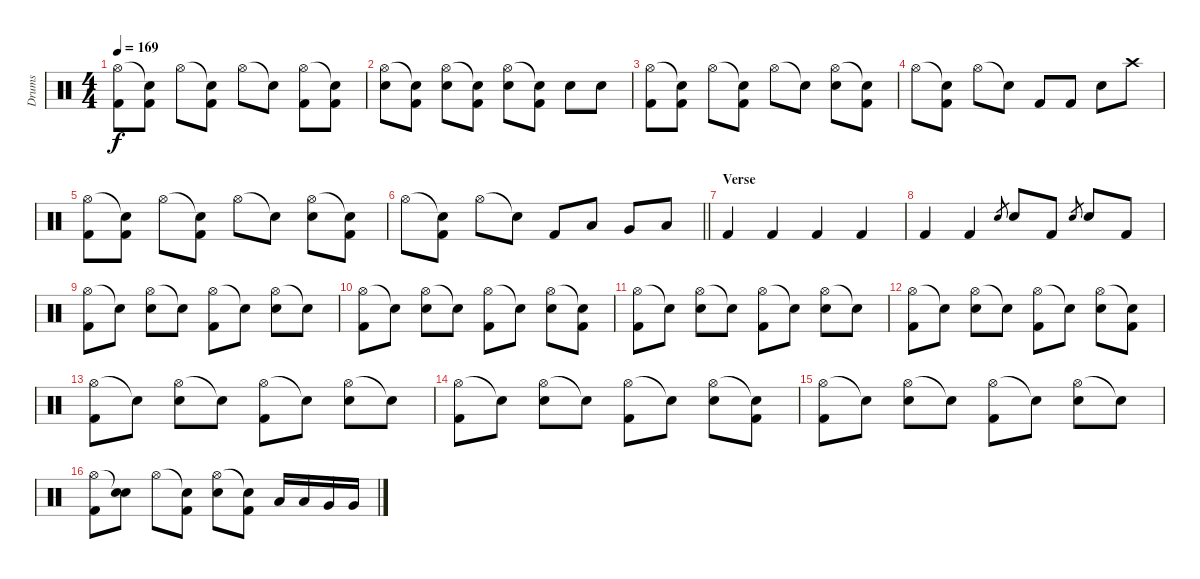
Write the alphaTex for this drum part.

\track ("Drums" "Drums") {instrument percussion}
\staff {score}
\articulation defaults
\ts (4 4)
\tempo 169
\clef neutral
\ks c
("Hi-Hat (open)" "Kick (hit) 2").8{dy f} ("Snare (hit)"{t} "Kick (hit) 2").8 "Hi-Hat (open)".8 ("Snare (hit)"{t} "Kick (hit) 2").8 "Hi-Hat (open)".8 "Snare (hit)"{t}.8 ("Hi-Hat (open)" "Kick (hit) 2").8 ("Snare (hit)"{t} "Kick (hit) 2").8 |
("Hi-Hat (open)" "Electric Snare (hit)").8 ("Snare (hit)"{t} "Kick (hit) 2").8 ("Hi-Hat (open)" "Electric Snare (hit)").8 ("Snare (hit)"{t} "Kick (hit) 2").8 ("Hi-Hat (open)" "Electric Snare (hit)").8 ("Snare (hit)"{t} "Kick (hit) 2").8 "Electric Snare (hit)".8 "Electric Snare (hit)".8 |
("Hi-Hat (open)" "Kick (hit) 2").8 ("Snare (hit)"{t} "Kick (hit) 2").8 "Hi-Hat (open)".8 ("Snare (hit)"{t} "Kick (hit) 2").8 "Hi-Hat (open)".8 "Snare (hit)"{t}.8 ("Hi-Hat (open)" "Electric Snare (hit)").8 ("Snare (hit)"{t} "Kick (hit) 2").8 |
"Hi-Hat (open)".8 ("Snare (hit)"{t} "Kick (hit) 2").8 "Hi-Hat (open)".8 "Snare (hit)"{t}.8 "Kick (hit) 2".8 "Kick (hit) 2".8 "Electric Snare (hit)".8 "Crash high (hit)".8 |
("Hi-Hat (open)" "Kick (hit) 2").8 ("Snare (hit)"{t} "Kick (hit) 2").8 "Hi-Hat (open)".8 ("Snare (hit)"{t} "Kick (hit) 2").8 "Hi-Hat (open)".8 "Snare (hit)"{t}.8 ("Hi-Hat (open)" "Electric Snare (hit)").8 ("Snare (hit)"{t} "Kick (hit) 2").8 |
\barLineRight lightlight "Hi-Hat (open)".8
("Snare (hit)"{t} "Kick (hit) 2").8 "Hi-Hat (open)".8 "Snare (hit)"{t}.8 "Kick (hit) 2".8 "Low Tom (hit)".8 "Very Low Tom (hit)".8 "Low Floor Tom (hit)".8 |
\section ("" "Verse")
"Kick (hit) 2".4 "Kick (hit) 2".4 "Kick (hit) 2".4 "Kick (hit) 2".4 |
"Kick (hit) 2".4 "Kick (hit) 2".4 "Electric Snare (hit)".8{gr} "Electric Snare (hit)".8 "Kick (hit) 2".8 "Electric Snare (hit)".8{gr} "Electric Snare (hit)".8 "Kick (hit) 2".8 |
("Hi-Hat (open)" "Kick (hit) 2").8 "Snare (hit)"{t}.8 ("Hi-Hat (open)" "Electric Snare (hit)").8 "Snare (hit)"{t}.8 ("Hi-Hat (open)" "Kick (hit) 2").8 "Snare (hit)"{t}.8 ("Hi-Hat (open)" "Electric Snare (hit)").8 "Snare (hit)"{t}.8 |
("Hi-Hat (open)" "Kick (hit) 2").8 "Snare (hit)"{t}.8 ("Hi-Hat (open)" "Electric Snare (hit)").8 "Snare (hit)"{t}.8 ("Hi-Hat (open)" "Kick (hit) 2").8 "Snare (hit)"{t}.8 ("Hi-Hat (open)" "Electric Snare (hit)").8 ("Snare (hit)"{t} "Kick (hit) 2").8 |
("Hi-Hat (open)" "Kick (hit) 2").8 "Snare (hit)"{t}.8 ("Hi-Hat (open)" "Electric Snare (hit)").8 "Snare (hit)"{t}.8 ("Hi-Hat (open)" "Kick (hit) 2").8 "Snare (hit)"{t}.8 ("Hi-Hat (open)" "Electric Snare (hit)").8 "Snare (hit)"{t}.8 |
("Hi-Hat (open)" "Kick (hit) 2").8 "Snare (hit)"{t}.8 ("Hi-Hat (open)" "Electric Snare (hit)").8 "Snare (hit)"{t}.8 ("Hi-Hat (open)" "Kick (hit) 2").8 "Snare (hit)"{t}.8 ("Hi-Hat (open)" "Electric Snare (hit)").8 ("Snare (hit)"{t} "Kick (hit) 2").8 |
("Hi-Hat (open)" "Kick (hit) 2").8 "Snare (hit)"{t}.8 ("Hi-Hat (open)" "Electric Snare (hit)").8 "Snare (hit)"{t}.8 ("Hi-Hat (open)" "Kick (hit) 2").8 "Snare (hit)"{t}.8 ("Hi-Hat (open)" "Electric Snare (hit)").8 "Snare (hit)"{t}.8 |
("Hi-Hat (open)" "Kick (hit) 2").8 "Snare (hit)"{t}.8 ("Hi-Hat (open)" "Electric Snare (hit)").8 "Snare (hit)"{t}.8 ("Hi-Hat (open)" "Kick (hit) 2").8 "Snare (hit)"{t}.8 ("Hi-Hat (open)" "Electric Snare (hit)").8 ("Snare (hit)"{t} "Kick (hit) 2").8 |
("Hi-Hat (open)" "Kick (hit) 2").8 "Snare (hit)"{t}.8 ("Hi-Hat (open)" "Electric Snare (hit)").8 "Snare (hit)"{t}.8 ("Hi-Hat (open)" "Kick (hit) 2").8 "Snare (hit)"{t}.8 ("Hi-Hat (open)" "Electric Snare (hit)").8 "Snare (hit)"{t}.8 |
("Hi-Hat (open)" "Kick (hit) 2").8 ("Snare (hit)"{t} "Electric Snare (hit)").8 "Hi-Hat (open)".8 ("Snare (hit)"{t} "Kick (hit) 2").8 ("Hi-Hat (open)" "Electric Snare (hit)").8 ("Snare (hit)"{t} "Kick (hit) 2").8 "Low Tom (hit)".16 "Low Tom (hit)".16 "Very Low Tom (hit)".16 "Very Low Tom (hit)".16
